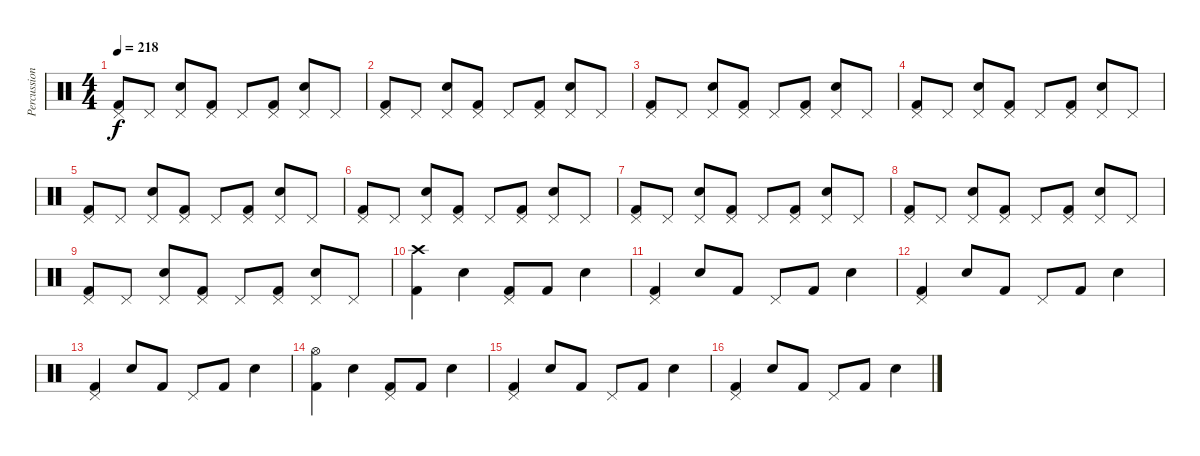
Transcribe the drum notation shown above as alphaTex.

\track ("Percussion" "Percussion") {instrument percussion}
\staff {score}
\articulation defaults
\ts (4 4)
\tempo 218
\clef neutral
\ks c
("Kick (hit) 2" "Pedal Hi-Hat (hit)").8{dy f} "Pedal Hi-Hat (hit)".8 ("Snare (hit) 2" "Pedal Hi-Hat (hit)").8 ("Kick (hit) 2" "Pedal Hi-Hat (hit)").8 "Pedal Hi-Hat (hit)".8 ("Kick (hit) 2" "Pedal Hi-Hat (hit)").8 ("Snare (hit) 2" "Pedal Hi-Hat (hit)").8 "Pedal Hi-Hat (hit)".8 |
("Kick (hit) 2" "Pedal Hi-Hat (hit)").8 "Pedal Hi-Hat (hit)".8 ("Snare (hit) 2" "Pedal Hi-Hat (hit)").8 ("Kick (hit) 2" "Pedal Hi-Hat (hit)").8 "Pedal Hi-Hat (hit)".8 ("Kick (hit) 2" "Pedal Hi-Hat (hit)").8 ("Snare (hit) 2" "Pedal Hi-Hat (hit)").8 "Pedal Hi-Hat (hit)".8 |
("Kick (hit) 2" "Pedal Hi-Hat (hit)").8 "Pedal Hi-Hat (hit)".8 ("Snare (hit) 2" "Pedal Hi-Hat (hit)").8 ("Kick (hit) 2" "Pedal Hi-Hat (hit)").8 "Pedal Hi-Hat (hit)".8 ("Kick (hit) 2" "Pedal Hi-Hat (hit)").8 ("Snare (hit) 2" "Pedal Hi-Hat (hit)").8 "Pedal Hi-Hat (hit)".8 |
("Kick (hit) 2" "Pedal Hi-Hat (hit)").8 "Pedal Hi-Hat (hit)".8 ("Snare (hit) 2" "Pedal Hi-Hat (hit)").8 ("Kick (hit) 2" "Pedal Hi-Hat (hit)").8 "Pedal Hi-Hat (hit)".8 ("Kick (hit) 2" "Pedal Hi-Hat (hit)").8 ("Snare (hit) 2" "Pedal Hi-Hat (hit)").8 "Pedal Hi-Hat (hit)".8 |
("Kick (hit) 2" "Pedal Hi-Hat (hit)").8 "Pedal Hi-Hat (hit)".8 ("Snare (hit) 2" "Pedal Hi-Hat (hit)").8 ("Kick (hit) 2" "Pedal Hi-Hat (hit)").8 "Pedal Hi-Hat (hit)".8 ("Kick (hit) 2" "Pedal Hi-Hat (hit)").8 ("Snare (hit) 2" "Pedal Hi-Hat (hit)").8 "Pedal Hi-Hat (hit)".8 |
("Kick (hit) 2" "Pedal Hi-Hat (hit)").8 "Pedal Hi-Hat (hit)".8 ("Snare (hit) 2" "Pedal Hi-Hat (hit)").8 ("Kick (hit) 2" "Pedal Hi-Hat (hit)").8 "Pedal Hi-Hat (hit)".8 ("Kick (hit) 2" "Pedal Hi-Hat (hit)").8 ("Snare (hit) 2" "Pedal Hi-Hat (hit)").8 "Pedal Hi-Hat (hit)".8 |
("Kick (hit) 2" "Pedal Hi-Hat (hit)").8 "Pedal Hi-Hat (hit)".8 ("Snare (hit) 2" "Pedal Hi-Hat (hit)").8 ("Kick (hit) 2" "Pedal Hi-Hat (hit)").8 "Pedal Hi-Hat (hit)".8 ("Kick (hit) 2" "Pedal Hi-Hat (hit)").8 ("Snare (hit) 2" "Pedal Hi-Hat (hit)").8 "Pedal Hi-Hat (hit)".8 |
("Kick (hit) 2" "Pedal Hi-Hat (hit)").8 "Pedal Hi-Hat (hit)".8 ("Snare (hit) 2" "Pedal Hi-Hat (hit)").8 ("Kick (hit) 2" "Pedal Hi-Hat (hit)").8 "Pedal Hi-Hat (hit)".8 ("Kick (hit) 2" "Pedal Hi-Hat (hit)").8 ("Snare (hit) 2" "Pedal Hi-Hat (hit)").8 "Pedal Hi-Hat (hit)".8 |
("Kick (hit) 2" "Pedal Hi-Hat (hit)").8 "Pedal Hi-Hat (hit)".8 ("Snare (hit) 2" "Pedal Hi-Hat (hit)").8 ("Kick (hit) 2" "Pedal Hi-Hat (hit)").8 "Pedal Hi-Hat (hit)".8 ("Kick (hit) 2" "Pedal Hi-Hat (hit)").8 ("Snare (hit) 2" "Pedal Hi-Hat (hit)").8 "Pedal Hi-Hat (hit)".8 |
("Kick (hit) 2" "Crash high (hit)").4 "Snare (hit) 2".4 ("Kick (hit) 2" "Pedal Hi-Hat (hit)").8 "Kick (hit) 2".8 "Snare (hit) 2".4 |
("Kick (hit) 2" "Pedal Hi-Hat (hit)").4 "Snare (hit) 2".8 "Kick (hit) 2".8 "Pedal Hi-Hat (hit)".8 "Kick (hit) 2".8 "Snare (hit) 2".4 |
("Kick (hit) 2" "Pedal Hi-Hat (hit)").4 "Snare (hit) 2".8 "Kick (hit) 2".8 "Pedal Hi-Hat (hit)".8 "Kick (hit) 2".8 "Snare (hit) 2".4 |
("Kick (hit) 2" "Pedal Hi-Hat (hit)").4 "Snare (hit) 2".8 "Kick (hit) 2".8 "Pedal Hi-Hat (hit)".8 "Kick (hit) 2".8 "Snare (hit) 2".4 |
("Kick (hit) 2" "Hi-Hat (open)").4 "Snare (hit) 2".4 ("Kick (hit) 2" "Pedal Hi-Hat (hit)").8 "Kick (hit) 2".8 "Snare (hit) 2".4 |
("Kick (hit) 2" "Pedal Hi-Hat (hit)").4 "Snare (hit) 2".8 "Kick (hit) 2".8 "Pedal Hi-Hat (hit)".8 "Kick (hit) 2".8 "Snare (hit) 2".4 |
("Kick (hit) 2" "Pedal Hi-Hat (hit)").4 "Snare (hit) 2".8 "Kick (hit) 2".8 "Pedal Hi-Hat (hit)".8 "Kick (hit) 2".8 "Snare (hit) 2".4
